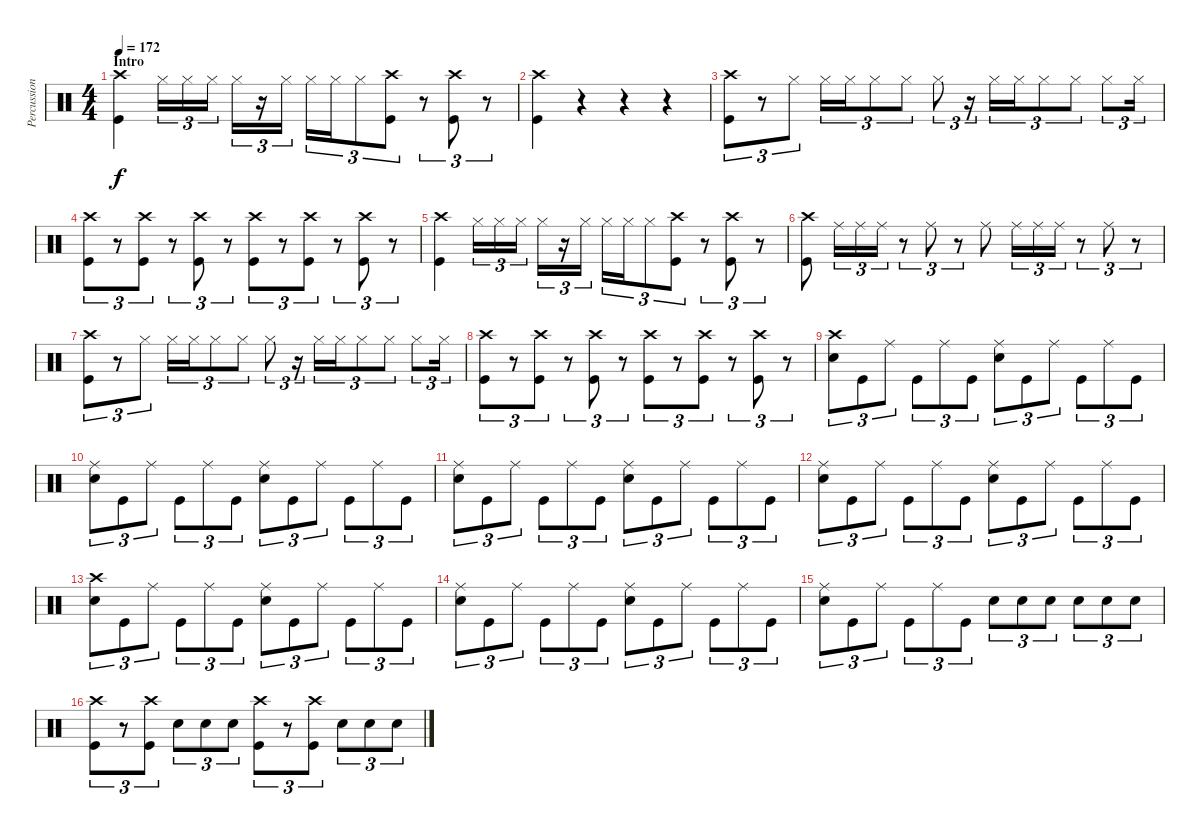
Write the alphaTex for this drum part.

\track ("Percussion" "Percussion") {instrument percussion}
\staff {score}
\articulation defaults
\ts (4 4)
\section ("" "Intro")
\tempo 172
\clef neutral
\ks c
("Crash high (hit)" "Kick (hit)").4{dy f} "Hi-Hat (closed)".16{tu (3 2)} "Hi-Hat (closed)".16{tu (3 2)} "Hi-Hat (closed)".16{tu (3 2)} "Hi-Hat (closed)".16{tu (3 2)} r.16{tu (3 2)} "Hi-Hat (closed)".16{tu (3 2)} "Hi-Hat (closed)".16{tu (3 2)} "Hi-Hat (closed)".16{tu (3 2)} "Hi-Hat (closed)".8{tu (3 2)} ("Crash high (hit)" "Kick (hit)").8{tu (3 2)} r.8{tu (3 2)} ("Crash high (hit)" "Kick (hit)").8{tu (3 2)} r.8{tu (3 2)} |
("Crash high (hit)" "Kick (hit)").4 r.4 r.4 r.4 |
("Crash high (hit)" "Kick (hit)").8{tu (3 2)} r.8{tu (3 2)} "Hi-Hat (closed)".8{tu (3 2)} "Hi-Hat (closed)".16{tu (3 2)} "Hi-Hat (closed)".16{tu (3 2)} "Hi-Hat (closed)".8{tu (3 2)} "Hi-Hat (closed)".8{tu (3 2)} "Hi-Hat (closed)".8{tu (3 2)} r.16{tu (3 2)} "Hi-Hat (closed)".16{tu (3 2)} "Hi-Hat (closed)".16{tu (3 2)} "Hi-Hat (closed)".8{tu (3 2)} "Hi-Hat (closed)".8{tu (3 2)} "Hi-Hat (closed)".8{tu (3 2)} "Hi-Hat (closed)".16{tu (3 2)} |
("Crash high (hit)" "Kick (hit)").8{tu (3 2)} r.8{tu (3 2)} ("Crash high (hit)" "Kick (hit)").8{tu (3 2)} r.8{tu (3 2)} ("Crash high (hit)" "Kick (hit)").8{tu (3 2)} r.8{tu (3 2)} ("Crash high (hit)" "Kick (hit)").8{tu (3 2)} r.8{tu (3 2)} ("Crash high (hit)" "Kick (hit)").8{tu (3 2)} r.8{tu (3 2)} ("Crash high (hit)" "Kick (hit)").8{tu (3 2)} r.8{tu (3 2)} |
("Crash high (hit)" "Kick (hit)").4 "Hi-Hat (closed)".16{tu (3 2)} "Hi-Hat (closed)".16{tu (3 2)} "Hi-Hat (closed)".16{tu (3 2)} "Hi-Hat (closed)".16{tu (3 2)} r.16{tu (3 2)} "Hi-Hat (closed)".16{tu (3 2)} "Hi-Hat (closed)".16{tu (3 2)} "Hi-Hat (closed)".16{tu (3 2)} "Hi-Hat (closed)".8{tu (3 2)} ("Crash high (hit)" "Kick (hit)").8{tu (3 2)} r.8{tu (3 2)} ("Crash high (hit)" "Kick (hit)").8{tu (3 2)} r.8{tu (3 2)} |
("Crash high (hit)" "Kick (hit)").8 "Ride (middle)".16{tu (3 2)} "Ride (middle)".16{tu (3 2)} "Ride (middle)".16{tu (3 2)} r.8{tu (3 2)} "Ride (middle)".8{tu (3 2)} r.8{tu (3 2)} "Ride (middle)".8 "Ride (middle)".16{tu (3 2)} "Ride (middle)".16{tu (3 2)} "Ride (middle)".16{tu (3 2)} r.8{tu (3 2)} "Ride (middle)".8{tu (3 2)} r.8{tu (3 2)} |
("Crash high (hit)" "Kick (hit)").8{tu (3 2)} r.8{tu (3 2)} "Hi-Hat (closed)".8{tu (3 2)} "Hi-Hat (closed)".16{tu (3 2)} "Hi-Hat (closed)".16{tu (3 2)} "Hi-Hat (closed)".8{tu (3 2)} "Hi-Hat (closed)".8{tu (3 2)} "Hi-Hat (closed)".8{tu (3 2)} r.16{tu (3 2)} "Hi-Hat (closed)".16{tu (3 2)} "Hi-Hat (closed)".16{tu (3 2)} "Hi-Hat (closed)".8{tu (3 2)} "Hi-Hat (closed)".8{tu (3 2)} "Hi-Hat (closed)".8{tu (3 2)} "Hi-Hat (closed)".16{tu (3 2)} |
("Crash high (hit)" "Kick (hit)").8{tu (3 2)} r.8{tu (3 2)} ("Crash high (hit)" "Kick (hit)").8{tu (3 2)} r.8{tu (3 2)} ("Crash high (hit)" "Kick (hit)").8{tu (3 2)} r.8{tu (3 2)} ("Crash high (hit)" "Kick (hit)").8{tu (3 2)} r.8{tu (3 2)} ("Crash high (hit)" "Kick (hit)").8{tu (3 2)} r.8{tu (3 2)} ("Crash high (hit)" "Kick (hit)").8{tu (3 2)} r.8{tu (3 2)} |
("Crash high (hit)" "Snare (hit) 2").8{tu (3 2)} "Kick (hit)".8{tu (3 2)} "Ride (middle)".8{tu (3 2)} "Kick (hit)".8{tu (3 2)} "Ride (middle)".8{tu (3 2)} "Kick (hit)".8{tu (3 2)} ("Ride (middle)" "Snare (hit) 2").8{tu (3 2)} "Kick (hit)".8{tu (3 2)} "Ride (middle)".8{tu (3 2)} "Kick (hit)".8{tu (3 2)} "Ride (middle)".8{tu (3 2)} "Kick (hit)".8{tu (3 2)} |
("Ride (middle)" "Snare (hit) 2").8{tu (3 2)} "Kick (hit)".8{tu (3 2)} "Ride (middle)".8{tu (3 2)} "Kick (hit)".8{tu (3 2)} "Ride (middle)".8{tu (3 2)} "Kick (hit)".8{tu (3 2)} ("Ride (middle)" "Snare (hit) 2").8{tu (3 2)} "Kick (hit)".8{tu (3 2)} "Ride (middle)".8{tu (3 2)} "Kick (hit)".8{tu (3 2)} "Ride (middle)".8{tu (3 2)} "Kick (hit)".8{tu (3 2)} |
("Ride (middle)" "Snare (hit) 2").8{tu (3 2)} "Kick (hit)".8{tu (3 2)} "Ride (middle)".8{tu (3 2)} "Kick (hit)".8{tu (3 2)} "Ride (middle)".8{tu (3 2)} "Kick (hit)".8{tu (3 2)} ("Ride (middle)" "Snare (hit) 2").8{tu (3 2)} "Kick (hit)".8{tu (3 2)} "Ride (middle)".8{tu (3 2)} "Kick (hit)".8{tu (3 2)} "Ride (middle)".8{tu (3 2)} "Kick (hit)".8{tu (3 2)} |
("Ride (middle)" "Snare (hit) 2").8{tu (3 2)} "Kick (hit)".8{tu (3 2)} "Ride (middle)".8{tu (3 2)} "Kick (hit)".8{tu (3 2)} "Ride (middle)".8{tu (3 2)} "Kick (hit)".8{tu (3 2)} ("Ride (middle)" "Snare (hit) 2").8{tu (3 2)} "Kick (hit)".8{tu (3 2)} "Ride (middle)".8{tu (3 2)} "Kick (hit)".8{tu (3 2)} "Ride (middle)".8{tu (3 2)} "Kick (hit)".8{tu (3 2)} |
("Crash high (hit)" "Snare (hit) 2").8{tu (3 2)} "Kick (hit)".8{tu (3 2)} "Ride (middle)".8{tu (3 2)} "Kick (hit)".8{tu (3 2)} "Ride (middle)".8{tu (3 2)} "Kick (hit)".8{tu (3 2)} ("Ride (middle)" "Snare (hit) 2").8{tu (3 2)} "Kick (hit)".8{tu (3 2)} "Ride (middle)".8{tu (3 2)} "Kick (hit)".8{tu (3 2)} "Ride (middle)".8{tu (3 2)} "Kick (hit)".8{tu (3 2)} |
("Ride (middle)" "Snare (hit) 2").8{tu (3 2)} "Kick (hit)".8{tu (3 2)} "Ride (middle)".8{tu (3 2)} "Kick (hit)".8{tu (3 2)} "Ride (middle)".8{tu (3 2)} "Kick (hit)".8{tu (3 2)} ("Ride (middle)" "Snare (hit) 2").8{tu (3 2)} "Kick (hit)".8{tu (3 2)} "Ride (middle)".8{tu (3 2)} "Kick (hit)".8{tu (3 2)} "Ride (middle)".8{tu (3 2)} "Kick (hit)".8{tu (3 2)} |
("Ride (middle)" "Snare (hit) 2").8{tu (3 2)} "Kick (hit)".8{tu (3 2)} "Ride (middle)".8{tu (3 2)} "Kick (hit)".8{tu (3 2)} "Ride (middle)".8{tu (3 2)} "Kick (hit)".8{tu (3 2)} "Snare (hit) 2".8{tu (3 2)} "Snare (hit) 2".8{tu (3 2)} "Snare (hit) 2".8{tu (3 2)} "Snare (hit) 2".8{tu (3 2)} "Snare (hit) 2".8{tu (3 2)} "Snare (hit) 2".8{tu (3 2)} |
("Crash high (hit)" "Kick (hit)").8{tu (3 2)} r.8{tu (3 2)} ("Crash high (hit)" "Kick (hit)").8{tu (3 2)} "Snare (hit) 2".8{tu (3 2)} "Snare (hit) 2".8{tu (3 2)} "Snare (hit) 2".8{tu (3 2)} ("Crash high (hit)" "Kick (hit)").8{tu (3 2)} r.8{tu (3 2)} ("Crash high (hit)" "Kick (hit)").8{tu (3 2)} "Snare (hit) 2".8{tu (3 2)} "Snare (hit) 2".8{tu (3 2)} "Snare (hit) 2".8{tu (3 2)}
